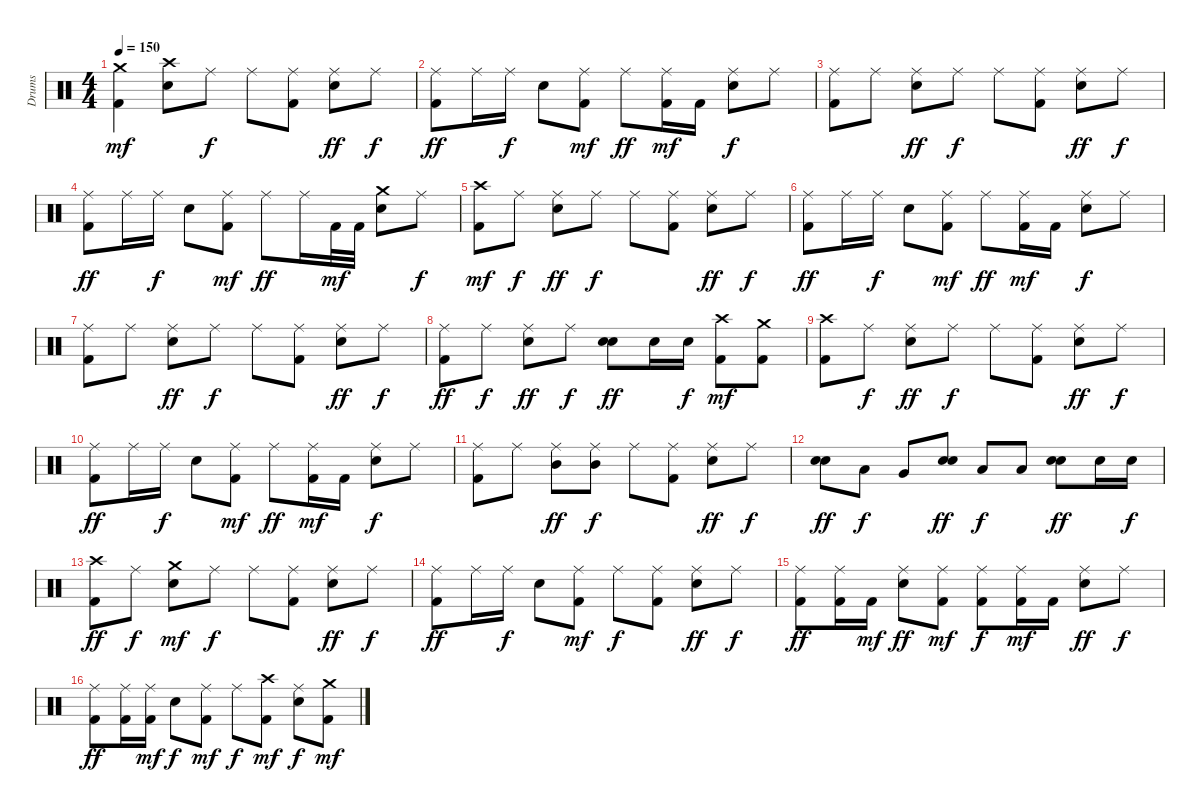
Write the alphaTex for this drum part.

\track ("Drums" "Drums") {instrument percussion}
\staff {score}
\articulation defaults
\ts (4 4)
\tempo 150
\clef neutral
\ks c
("Crash medium (hit)" "Kick (hit) 2").4{dy mf} ("Crash high (hit)" "Snare (hit) 2").8 "Ride (middle)".8{dy f} "Ride (middle)".8 ("Ride (middle)" "Kick (hit) 2").8 ("Ride (middle)" "Snare (hit) 2").8{dy ff} "Ride (middle)".8{dy f} |
("Ride (middle)" "Kick (hit) 2").8{dy ff} "Ride (middle)".16 "Ride (middle)".16{dy f} "Snare (hit) 2".8 ("Ride (middle)" "Kick (hit) 2").8{dy mf} "Ride (middle)".8{dy ff} ("Ride (middle)" "Kick (hit) 2").16{dy mf} "Kick (hit) 2".16 ("Ride (middle)" "Snare (hit) 2").8{dy f} "Ride (middle)".8 |
("Ride (middle)" "Kick (hit) 2").8 "Ride (middle)".8 ("Snare (hit) 2" "Ride (middle)").8{dy ff} "Ride (middle)".8{dy f} "Ride (middle)".8 ("Kick (hit) 2" "Ride (middle)").8 ("Snare (hit) 2" "Ride (middle)").8{dy ff} "Ride (middle)".8{dy f} |
("Ride (middle)" "Kick (hit) 2").8{dy ff} "Ride (middle)".16 "Ride (middle)".16{dy f} "Snare (hit) 2".8 ("Ride (middle)" "Kick (hit) 2").8{dy mf} "Ride (middle)".8{dy ff} "Ride (middle)".16 "Kick (hit) 2".32{dy mf} "Kick (hit) 2".32 ("Crash medium (hit)" "Snare (hit) 2").8 "Ride (middle)".8{dy f} |
("Crash high (hit)" "Kick (hit) 2").8{dy mf} "Ride (middle)".8{dy f} ("Ride (middle)" "Snare (hit) 2").8{dy ff} "Ride (middle)".8{dy f} "Ride (middle)".8 ("Ride (middle)" "Kick (hit) 2").8 ("Ride (middle)" "Snare (hit) 2").8{dy ff} "Ride (middle)".8{dy f} |
("Ride (middle)" "Kick (hit) 2").8{dy ff} "Ride (middle)".16 "Ride (middle)".16{dy f} "Snare (hit) 2".8 ("Ride (middle)" "Kick (hit) 2").8{dy mf} "Ride (middle)".8{dy ff} ("Ride (middle)" "Kick (hit) 2").16{dy mf} "Kick (hit) 2".16 ("Ride (middle)" "Snare (hit) 2").8{dy f} "Ride (middle)".8 |
("Ride (middle)" "Kick (hit) 2").8 "Ride (middle)".8 ("Ride (middle)" "Snare (hit) 2").8{dy ff} "Ride (middle)".8{dy f} "Ride (middle)".8 ("Ride (middle)" "Kick (hit) 2").8 ("Ride (middle)" "Snare (hit) 2").8{dy ff} "Ride (middle)".8{dy f} |
("Kick (hit) 2" "Ride (middle)").8{dy ff} "Ride (middle)".8{dy f} ("Snare (hit) 2" "Ride (middle)").8{dy ff} "Ride (middle)".8{dy f} ("Snare (hit) 2" "Snare (hit) 2").8{dy ff} "Snare (hit) 2".16 "Snare (hit) 2".16{dy f} ("Crash high (hit)" "Kick (hit) 2").8{dy mf} ("Crash medium (hit)" "Kick (hit) 2").8 |
("Crash high (hit)" "Kick (hit) 2").8 "Ride (middle)".8{dy f} ("Ride (middle)" "Snare (hit) 2").8{dy ff} "Ride (middle)".8{dy f} "Ride (middle)".8 ("Ride (middle)" "Kick (hit) 2").8 ("Ride (middle)" "Snare (hit) 2").8{dy ff} "Ride (middle)".8{dy f} |
("Ride (middle)" "Kick (hit) 2").8{dy ff} "Ride (middle)".16 "Ride (middle)".16{dy f} "Snare (hit) 2".8 ("Ride (middle)" "Kick (hit) 2").8{dy mf} "Ride (middle)".8{dy ff} ("Ride (middle)" "Kick (hit) 2").16{dy mf} "Kick (hit) 2".16 ("Ride (middle)" "Snare (hit) 2").8{dy f} "Ride (middle)".8 |
("Ride (middle)" "Kick (hit) 2").8 "Ride (middle)".8 ("Mid Tom (hit)" "Ride (middle)").8{dy ff} ("Mid Tom (hit)" "Ride (middle)").8{dy f} "Ride (middle)".8 ("Ride (middle)" "Kick (hit) 2").8 ("Ride (middle)" "Snare (hit) 2").8{dy ff} "Ride (middle)".8{dy f} |
("Snare (hit) 2" "Snare (hit) 2").8{dy ff} "Low Tom (hit)".8{dy f} "Very Low Tom (hit)".8 ("Snare (hit) 2" "Snare (hit) 2").8{dy ff} "Low Tom (hit)".8{dy f} "Low Tom (hit)".8 ("Snare (hit) 2" "Snare (hit) 2").8{dy ff} "Snare (hit) 2".16 "Snare (hit) 2".16{dy f} |
("Crash high (hit)" "Kick (hit) 2").8{dy ff} "Ride (middle)".8{dy f} ("Crash medium (hit)" "Snare (hit) 2").8{dy mf} "Ride (middle)".8{dy f} "Ride (middle)".8 ("Ride (middle)" "Kick (hit) 2").8 ("Ride (middle)" "Snare (hit) 2").8{dy ff} "Ride (middle)".8{dy f} |
("Ride (middle)" "Kick (hit) 2").8{dy ff} "Ride (middle)".16 "Ride (middle)".16{dy f} "Snare (hit) 2".8 ("Ride (middle)" "Kick (hit) 2").8{dy mf} "Ride (middle)".8{dy f} ("Ride (middle)" "Kick (hit) 2").8 ("Ride (middle)" "Snare (hit) 2").8{dy ff} "Ride (middle)".8{dy f} |
("Ride (middle)" "Kick (hit) 2").8{dy ff} ("Kick (hit) 2" "Ride (middle)").16 "Kick (hit) 2".16{dy mf} ("Ride (middle)" "Snare (hit) 2").8{dy ff} ("Kick (hit) 2" "Ride (middle)").8{dy mf} ("Kick (hit) 2" "Ride (middle)").8{dy f} ("Ride (middle)" "Kick (hit) 2").16{dy mf} "Kick (hit) 2".16 ("Ride (middle)" "Snare (hit) 2").8{dy ff} "Ride (middle)".8{dy f} |
("Ride (middle)" "Kick (hit) 2").8{dy ff} ("Kick (hit) 2" "Ride (middle)").16 ("Kick (hit) 2" "Ride (middle)").16{dy mf} "Snare (hit) 2".8{dy f} ("Ride (middle)" "Kick (hit) 2").8{dy mf} "Ride (middle)".8{dy f} ("Crash high (hit)" "Kick (hit) 2").8{dy mf} ("Ride (middle)" "Snare (hit) 2").8{dy f} ("Crash medium (hit)" "Kick (hit) 2").8{dy mf}
